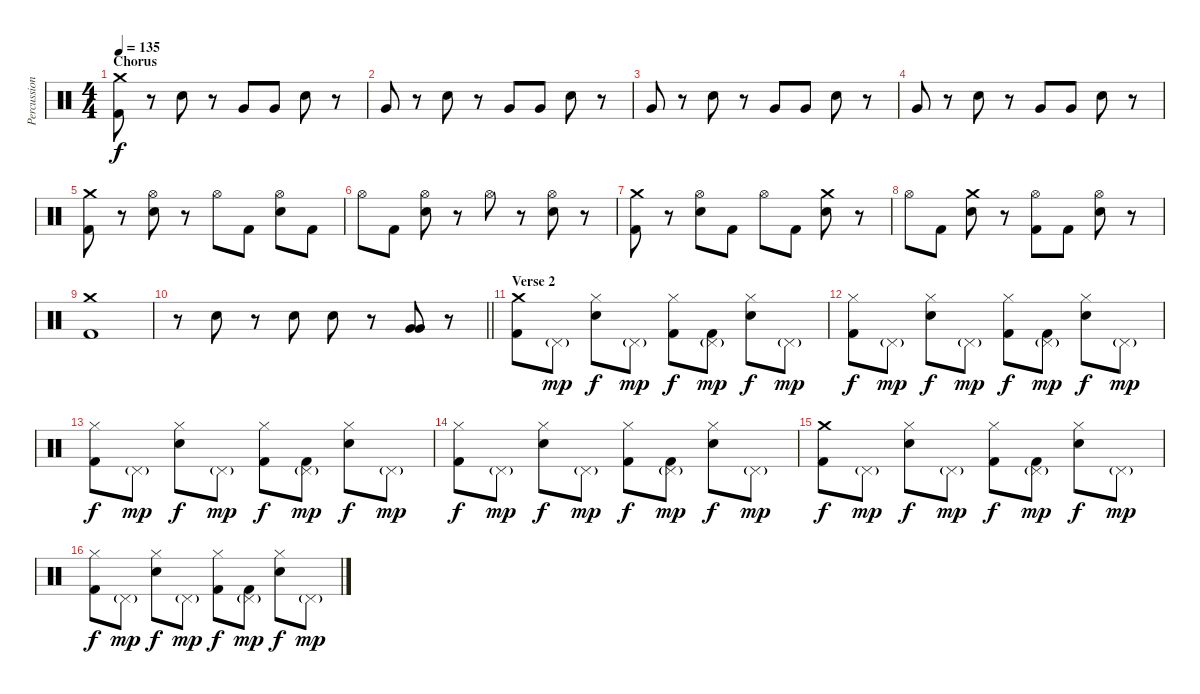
\track ("Percussion" "Percussion") {instrument percussion}
\staff {score}
\articulation defaults
\ts (4 4)
\section ("" "Chorus")
\tempo 135
\clef neutral
\ks c
("Crash medium (hit)" "Kick (hit) 2").8{dy f} r.8 "Electric Snare (hit)".8 r.8 "Very Low Tom (hit)".8 "Very Low Tom (hit)".8 "Electric Snare (hit)".8 r.8 |
"Very Low Tom (hit)".8 r.8 "Electric Snare (hit)".8 r.8 "Very Low Tom (hit)".8 "Very Low Tom (hit)".8 "Electric Snare (hit)".8 r.8 |
"Very Low Tom (hit)".8 r.8 "Electric Snare (hit)".8 r.8 "Very Low Tom (hit)".8 "Very Low Tom (hit)".8 "Electric Snare (hit)".8 r.8 |
"Very Low Tom (hit)".8 r.8 "Electric Snare (hit)".8 r.8 "Very Low Tom (hit)".8 "Very Low Tom (hit)".8 "Electric Snare (hit)".8 r.8 |
("Crash medium (hit)" "Kick (hit) 2").8 r.8 ("Hi-Hat (open)" "Electric Snare (hit)").8 r.8 "Hi-Hat (open)".8 "Kick (hit) 2".8 ("Hi-Hat (open)" "Electric Snare (hit)").8 "Kick (hit) 2".8 |
"Hi-Hat (open)".8 "Kick (hit) 2".8 ("Hi-Hat (open)" "Electric Snare (hit)").8 r.8 "Hi-Hat (open)".8 r.8 ("Hi-Hat (open)" "Electric Snare (hit)").8 r.8 |
("Crash medium (hit)" "Kick (hit) 2").8 r.8 ("Hi-Hat (open)" "Electric Snare (hit)").8 "Kick (hit) 2".8 "Hi-Hat (open)".8 "Kick (hit) 2".8 ("Crash medium (hit)" "Electric Snare (hit)").8 r.8 |
"Hi-Hat (open)".8 "Kick (hit) 2".8 ("Crash medium (hit)" "Electric Snare (hit)").8 r.8 ("Hi-Hat (open)" "Kick (hit) 2").8 "Kick (hit) 2".8 ("Hi-Hat (open)" "Electric Snare (hit)").8 r.8 |
("Crash medium (hit)" "Kick (hit) 2").1 |
\barLineRight lightlight
r.8 "Electric Snare (hit)".8 r.8 "Electric Snare (hit)".8 "Electric Snare (hit)".8 r.8 ("Very Low Tom (hit)" "Very Low Tom (hit)").8 r.8 |
\section ("" "Verse 2")
("Crash medium (hit)" "Kick (hit) 2").8 "Pedal Hi-Hat (hit)"{g}.8{dy mp} ("Hi-Hat (closed)" "Electric Snare (hit)").8{dy f} "Pedal Hi-Hat (hit)"{g}.8{dy mp} ("Hi-Hat (closed)" "Kick (hit) 2").8{dy f} ("Pedal Hi-Hat (hit)"{g} "Kick (hit) 2").8{dy mp} ("Hi-Hat (closed)" "Electric Snare (hit)").8{dy f} "Pedal Hi-Hat (hit)"{g}.8{dy mp} |
("Hi-Hat (closed)" "Kick (hit) 2").8{dy f} "Pedal Hi-Hat (hit)"{g}.8{dy mp} ("Hi-Hat (closed)" "Electric Snare (hit)").8{dy f} "Pedal Hi-Hat (hit)"{g}.8{dy mp} ("Hi-Hat (closed)" "Kick (hit) 2").8{dy f} ("Pedal Hi-Hat (hit)"{g} "Kick (hit) 2").8{dy mp} ("Hi-Hat (closed)" "Electric Snare (hit)").8{dy f} "Pedal Hi-Hat (hit)"{g}.8{dy mp} |
("Hi-Hat (closed)" "Kick (hit) 2").8{dy f} "Pedal Hi-Hat (hit)"{g}.8{dy mp} ("Hi-Hat (closed)" "Electric Snare (hit)").8{dy f} "Pedal Hi-Hat (hit)"{g}.8{dy mp} ("Hi-Hat (closed)" "Kick (hit) 2").8{dy f} ("Pedal Hi-Hat (hit)"{g} "Kick (hit) 2").8{dy mp} ("Hi-Hat (closed)" "Electric Snare (hit)").8{dy f} "Pedal Hi-Hat (hit)"{g}.8{dy mp} |
("Hi-Hat (closed)" "Kick (hit) 2").8{dy f} "Pedal Hi-Hat (hit)"{g}.8{dy mp} ("Hi-Hat (closed)" "Electric Snare (hit)").8{dy f} "Pedal Hi-Hat (hit)"{g}.8{dy mp} ("Hi-Hat (closed)" "Kick (hit) 2").8{dy f} ("Pedal Hi-Hat (hit)"{g} "Kick (hit) 2").8{dy mp} ("Hi-Hat (closed)" "Electric Snare (hit)").8{dy f} "Pedal Hi-Hat (hit)"{g}.8{dy mp} |
("Crash medium (hit)" "Kick (hit) 2").8{dy f} "Pedal Hi-Hat (hit)"{g}.8{dy mp} ("Hi-Hat (closed)" "Electric Snare (hit)").8{dy f} "Pedal Hi-Hat (hit)"{g}.8{dy mp} ("Hi-Hat (closed)" "Kick (hit) 2").8{dy f} ("Pedal Hi-Hat (hit)"{g} "Kick (hit) 2").8{dy mp} ("Hi-Hat (closed)" "Electric Snare (hit)").8{dy f} "Pedal Hi-Hat (hit)"{g}.8{dy mp} |
("Hi-Hat (closed)" "Kick (hit) 2").8{dy f} "Pedal Hi-Hat (hit)"{g}.8{dy mp} ("Hi-Hat (closed)" "Electric Snare (hit)").8{dy f} "Pedal Hi-Hat (hit)"{g}.8{dy mp} ("Hi-Hat (closed)" "Kick (hit) 2").8{dy f} ("Pedal Hi-Hat (hit)"{g} "Kick (hit) 2").8{dy mp} ("Hi-Hat (closed)" "Electric Snare (hit)").8{dy f} "Pedal Hi-Hat (hit)"{g}.8{dy mp}
